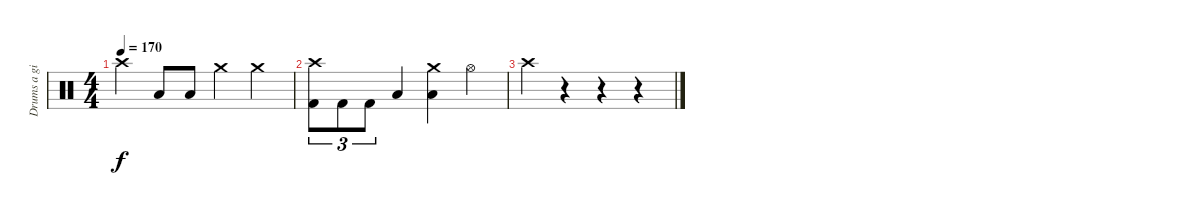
\track ("Drums a girl could play" "Drums a gi") {instrument percussion}
\staff {score}
\articulation defaults
\ts (4 4)
\tempo 170
\clef neutral
\ks c "Crash high (hit)".4{dy f} "Low Floor Tom (hit)".8 "Low Floor Tom (hit)".8 "Crash medium (hit)".4 "Crash medium (hit)".4
|
("Crash high (hit)" "Kick (hit) 2").8{tu (3 2)} "Kick (hit) 2".8{tu (3 2)} "Kick (hit) 2".8{tu (3 2)} "Low Floor Tom (hit)".4 ("Crash medium (hit)" "Low Floor Tom (hit)").4 "Hi-Hat (open)".4 |
"Crash high (hit)".4 r.4 r.4 r.4
